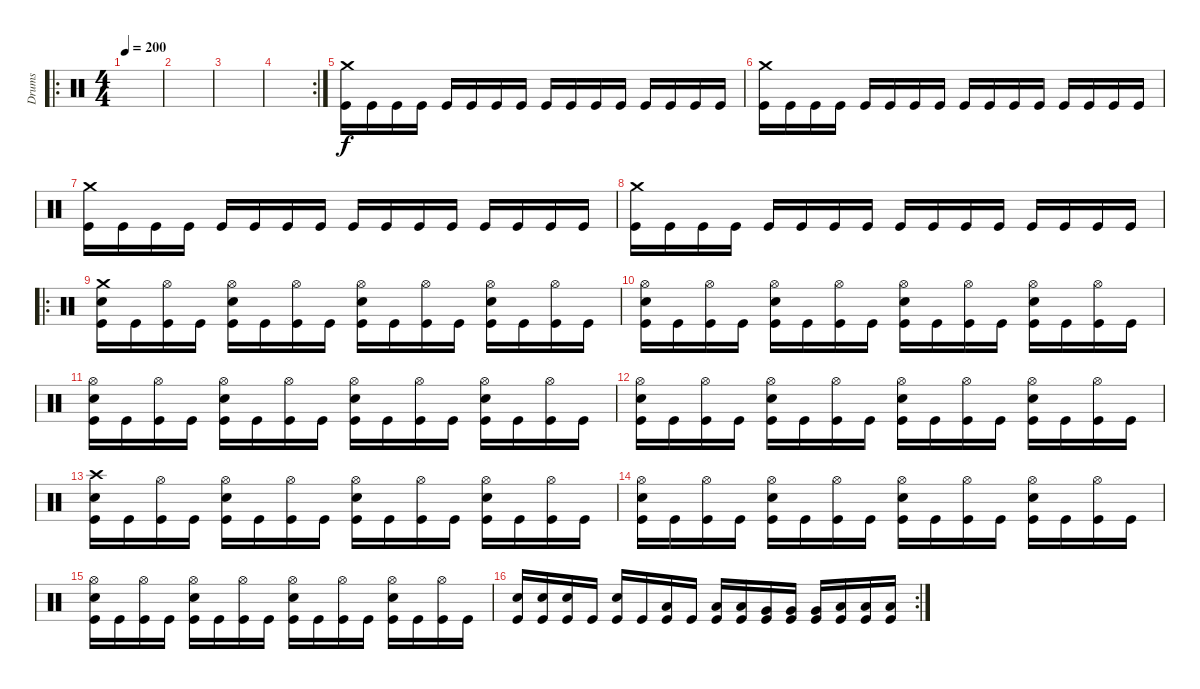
\track ("Drums" "Drums") {instrument percussion}
\staff {score}
\articulation defaults
\ro
\ts (4 4)
\tempo 200
\clef neutral
\ks c
|
|
|
\rc 2
|
("Crash medium (hit)" "Kick (hit)").16 "Kick (hit)".16 "Kick (hit)".16 "Kick (hit)".16 "Kick (hit)".16 "Kick (hit)".16 "Kick (hit)".16 "Kick (hit)".16 "Kick (hit)".16 "Kick (hit)".16 "Kick (hit)".16 "Kick (hit)".16 "Kick (hit)".16 "Kick (hit)".16 "Kick (hit)".16 "Kick (hit)".16 |
("Crash medium (hit)" "Kick (hit)").16 "Kick (hit)".16 "Kick (hit)".16 "Kick (hit)".16 "Kick (hit)".16 "Kick (hit)".16 "Kick (hit)".16 "Kick (hit)".16 "Kick (hit)".16 "Kick (hit)".16 "Kick (hit)".16 "Kick (hit)".16 "Kick (hit)".16 "Kick (hit)".16 "Kick (hit)".16 "Kick (hit)".16 |
("Crash medium (hit)" "Kick (hit)").16 "Kick (hit)".16 "Kick (hit)".16 "Kick (hit)".16 "Kick (hit)".16 "Kick (hit)".16 "Kick (hit)".16 "Kick (hit)".16 "Kick (hit)".16 "Kick (hit)".16 "Kick (hit)".16 "Kick (hit)".16 "Kick (hit)".16 "Kick (hit)".16 "Kick (hit)".16 "Kick (hit)".16 |
("Crash medium (hit)" "Kick (hit)").16 "Kick (hit)".16 "Kick (hit)".16 "Kick (hit)".16 "Kick (hit)".16 "Kick (hit)".16 "Kick (hit)".16 "Kick (hit)".16 "Kick (hit)".16 "Kick (hit)".16 "Kick (hit)".16 "Kick (hit)".16 "Kick (hit)".16 "Kick (hit)".16 "Kick (hit)".16 "Kick (hit)".16 |
\ro
("Crash medium (hit)" "Electric Snare (hit)" "Kick (hit)").16 "Kick (hit)".16 ("Hi-Hat (open)" "Kick (hit)").16 "Kick (hit)".16 ("Hi-Hat (open)" "Electric Snare (hit)" "Kick (hit)").16 "Kick (hit)".16 ("Hi-Hat (open)" "Kick (hit)").16 "Kick (hit)".16 ("Hi-Hat (open)" "Electric Snare (hit)" "Kick (hit)").16 "Kick (hit)".16 ("Hi-Hat (open)" "Kick (hit)").16 "Kick (hit)".16 ("Hi-Hat (open)" "Electric Snare (hit)" "Kick (hit)").16 "Kick (hit)".16 ("Hi-Hat (open)" "Kick (hit)").16 "Kick (hit)".16 |
("Hi-Hat (open)" "Electric Snare (hit)" "Kick (hit)").16 "Kick (hit)".16 ("Hi-Hat (open)" "Kick (hit)").16 "Kick (hit)".16 ("Hi-Hat (open)" "Electric Snare (hit)" "Kick (hit)").16 "Kick (hit)".16 ("Hi-Hat (open)" "Kick (hit)").16 "Kick (hit)".16 ("Hi-Hat (open)" "Electric Snare (hit)" "Kick (hit)").16 "Kick (hit)".16 ("Hi-Hat (open)" "Kick (hit)").16 "Kick (hit)".16 ("Hi-Hat (open)" "Electric Snare (hit)" "Kick (hit)").16 "Kick (hit)".16 ("Hi-Hat (open)" "Kick (hit)").16 "Kick (hit)".16 |
("Hi-Hat (open)" "Electric Snare (hit)" "Kick (hit)").16 "Kick (hit)".16 ("Hi-Hat (open)" "Kick (hit)").16 "Kick (hit)".16 ("Hi-Hat (open)" "Electric Snare (hit)" "Kick (hit)").16 "Kick (hit)".16 ("Hi-Hat (open)" "Kick (hit)").16 "Kick (hit)".16 ("Hi-Hat (open)" "Electric Snare (hit)" "Kick (hit)").16 "Kick (hit)".16 ("Hi-Hat (open)" "Kick (hit)").16 "Kick (hit)".16 ("Hi-Hat (open)" "Electric Snare (hit)" "Kick (hit)").16 "Kick (hit)".16 ("Hi-Hat (open)" "Kick (hit)").16 "Kick (hit)".16 |
("Hi-Hat (open)" "Electric Snare (hit)" "Kick (hit)").16 "Kick (hit)".16 ("Hi-Hat (open)" "Kick (hit)").16 "Kick (hit)".16 ("Hi-Hat (open)" "Electric Snare (hit)" "Kick (hit)").16 "Kick (hit)".16 ("Hi-Hat (open)" "Kick (hit)").16 "Kick (hit)".16 ("Hi-Hat (open)" "Electric Snare (hit)" "Kick (hit)").16 "Kick (hit)".16 ("Hi-Hat (open)" "Kick (hit)").16 "Kick (hit)".16 ("Hi-Hat (open)" "Electric Snare (hit)" "Kick (hit)").16 "Kick (hit)".16 ("Hi-Hat (open)" "Kick (hit)").16 "Kick (hit)".16 |
("Crash high (hit)" "Electric Snare (hit)" "Kick (hit)").16 "Kick (hit)".16 ("Hi-Hat (open)" "Kick (hit)").16 "Kick (hit)".16 ("Hi-Hat (open)" "Electric Snare (hit)" "Kick (hit)").16 "Kick (hit)".16 ("Hi-Hat (open)" "Kick (hit)").16 "Kick (hit)".16 ("Hi-Hat (open)" "Electric Snare (hit)" "Kick (hit)").16 "Kick (hit)".16 ("Hi-Hat (open)" "Kick (hit)").16 "Kick (hit)".16 ("Hi-Hat (open)" "Electric Snare (hit)" "Kick (hit)").16 "Kick (hit)".16 ("Hi-Hat (open)" "Kick (hit)").16 "Kick (hit)".16 |
("Hi-Hat (open)" "Electric Snare (hit)" "Kick (hit)").16 "Kick (hit)".16 ("Hi-Hat (open)" "Kick (hit)").16 "Kick (hit)".16 ("Hi-Hat (open)" "Electric Snare (hit)" "Kick (hit)").16 "Kick (hit)".16 ("Hi-Hat (open)" "Kick (hit)").16 "Kick (hit)".16 ("Hi-Hat (open)" "Electric Snare (hit)" "Kick (hit)").16 "Kick (hit)".16 ("Hi-Hat (open)" "Kick (hit)").16 "Kick (hit)".16 ("Hi-Hat (open)" "Electric Snare (hit)" "Kick (hit)").16 "Kick (hit)".16 ("Hi-Hat (open)" "Kick (hit)").16 "Kick (hit)".16 |
("Hi-Hat (open)" "Electric Snare (hit)" "Kick (hit)").16 "Kick (hit)".16 ("Hi-Hat (open)" "Kick (hit)").16 "Kick (hit)".16 ("Hi-Hat (open)" "Electric Snare (hit)" "Kick (hit)").16 "Kick (hit)".16 ("Hi-Hat (open)" "Kick (hit)").16 "Kick (hit)".16 ("Hi-Hat (open)" "Electric Snare (hit)" "Kick (hit)").16 "Kick (hit)".16 ("Hi-Hat (open)" "Kick (hit)").16 "Kick (hit)".16 ("Hi-Hat (open)" "Electric Snare (hit)" "Kick (hit)").16 "Kick (hit)".16 ("Hi-Hat (open)" "Kick (hit)").16 "Kick (hit)".16 |
\rc 2
("Electric Snare (hit)" "Kick (hit)").16 ("Electric Snare (hit)" "Kick (hit)").16 ("Electric Snare (hit)" "Kick (hit)").16 "Kick (hit)".16 ("Electric Snare (hit)" "Kick (hit)").16 "Kick (hit)".16 ("Low Tom (hit)" "Kick (hit)").16 "Kick (hit)".16 ("Low Tom (hit)" "Kick (hit)").16 ("Low Tom (hit)" "Kick (hit)").16 ("Very Low Tom (hit)" "Kick (hit)").16 ("Very Low Tom (hit)" "Kick (hit)").16 ("Very Low Tom (hit)" "Kick (hit)").16 ("Low Floor Tom (hit)" "Kick (hit)").16 ("Low Floor Tom (hit)" "Kick (hit)").16 ("Low Floor Tom (hit)" "Kick (hit)").16
